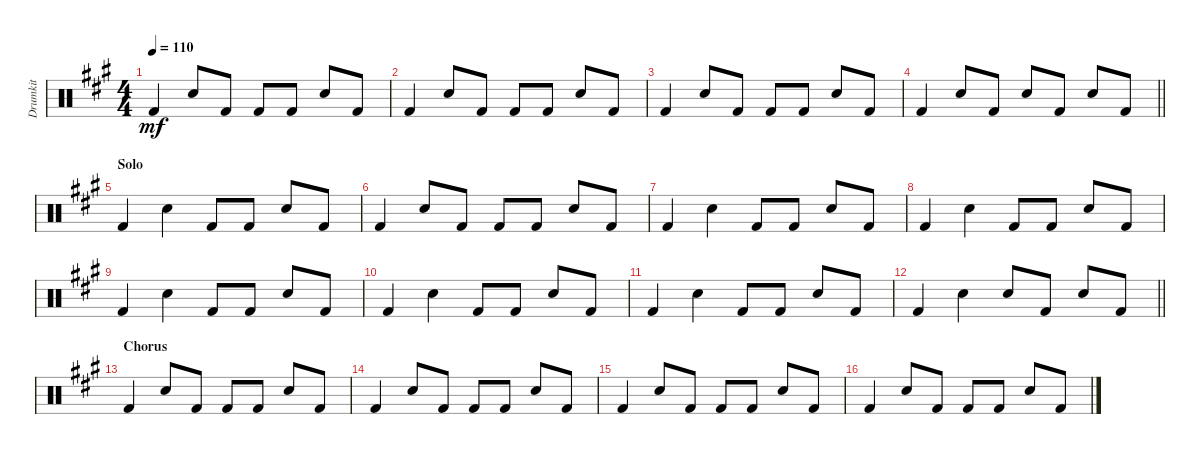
\track ("Drumkit" "Drumkit") {instrument percussion}
\staff {score}
\articulation defaults
\ts (4 4)
\tempo 110
\clef neutral
\ks a "Kick (hit) 2".4{dy mf} "Snare (hit) 2".8 "Kick (hit) 2".8 "Kick (hit) 2".8 "Kick (hit) 2".8 "Snare (hit) 2".8 "Kick (hit) 2".8
|
"Kick (hit) 2".4 "Snare (hit) 2".8 "Kick (hit) 2".8 "Kick (hit) 2".8 "Kick (hit) 2".8 "Snare (hit) 2".8 "Kick (hit) 2".8 |
"Kick (hit) 2".4 "Snare (hit) 2".8 "Kick (hit) 2".8 "Kick (hit) 2".8 "Kick (hit) 2".8 "Snare (hit) 2".8 "Kick (hit) 2".8 |
\barLineRight lightlight "Kick (hit) 2".4 "Snare (hit) 2".8 "Kick (hit) 2".8 "Snare (hit) 2".8 "Kick (hit) 2".8 "Snare (hit) 2".8 "Kick (hit) 2".8
|
\section ("" "Solo")
"Kick (hit) 2".4 "Snare (hit) 2".4 "Kick (hit) 2".8 "Kick (hit) 2".8 "Snare (hit) 2".8 "Kick (hit) 2".8 |
"Kick (hit) 2".4 "Snare (hit) 2".8 "Kick (hit) 2".8 "Kick (hit) 2".8 "Kick (hit) 2".8 "Snare (hit) 2".8 "Kick (hit) 2".8 |
"Kick (hit) 2".4 "Snare (hit) 2".4 "Kick (hit) 2".8 "Kick (hit) 2".8 "Snare (hit) 2".8 "Kick (hit) 2".8 |
"Kick (hit) 2".4 "Snare (hit) 2".4 "Kick (hit) 2".8 "Kick (hit) 2".8 "Snare (hit) 2".8 "Kick (hit) 2".8 |
"Kick (hit) 2".4 "Snare (hit) 2".4 "Kick (hit) 2".8 "Kick (hit) 2".8 "Snare (hit) 2".8 "Kick (hit) 2".8 |
"Kick (hit) 2".4 "Snare (hit) 2".4 "Kick (hit) 2".8 "Kick (hit) 2".8 "Snare (hit) 2".8 "Kick (hit) 2".8 |
"Kick (hit) 2".4 "Snare (hit) 2".4 "Kick (hit) 2".8 "Kick (hit) 2".8 "Snare (hit) 2".8 "Kick (hit) 2".8 |
\barLineRight lightlight "Kick (hit) 2".4 "Snare (hit) 2".4 "Snare (hit) 2".8 "Kick (hit) 2".8 "Snare (hit) 2".8 "Kick (hit) 2".8
|
\section ("" "Chorus")
"Kick (hit) 2".4 "Snare (hit) 2".8 "Kick (hit) 2".8 "Kick (hit) 2".8 "Kick (hit) 2".8 "Snare (hit) 2".8 "Kick (hit) 2".8 |
"Kick (hit) 2".4 "Snare (hit) 2".8 "Kick (hit) 2".8 "Kick (hit) 2".8 "Kick (hit) 2".8 "Snare (hit) 2".8 "Kick (hit) 2".8 |
"Kick (hit) 2".4 "Snare (hit) 2".8 "Kick (hit) 2".8 "Kick (hit) 2".8 "Kick (hit) 2".8 "Snare (hit) 2".8 "Kick (hit) 2".8 |
"Kick (hit) 2".4 "Snare (hit) 2".8 "Kick (hit) 2".8 "Kick (hit) 2".8 "Kick (hit) 2".8 "Snare (hit) 2".8 "Kick (hit) 2".8
